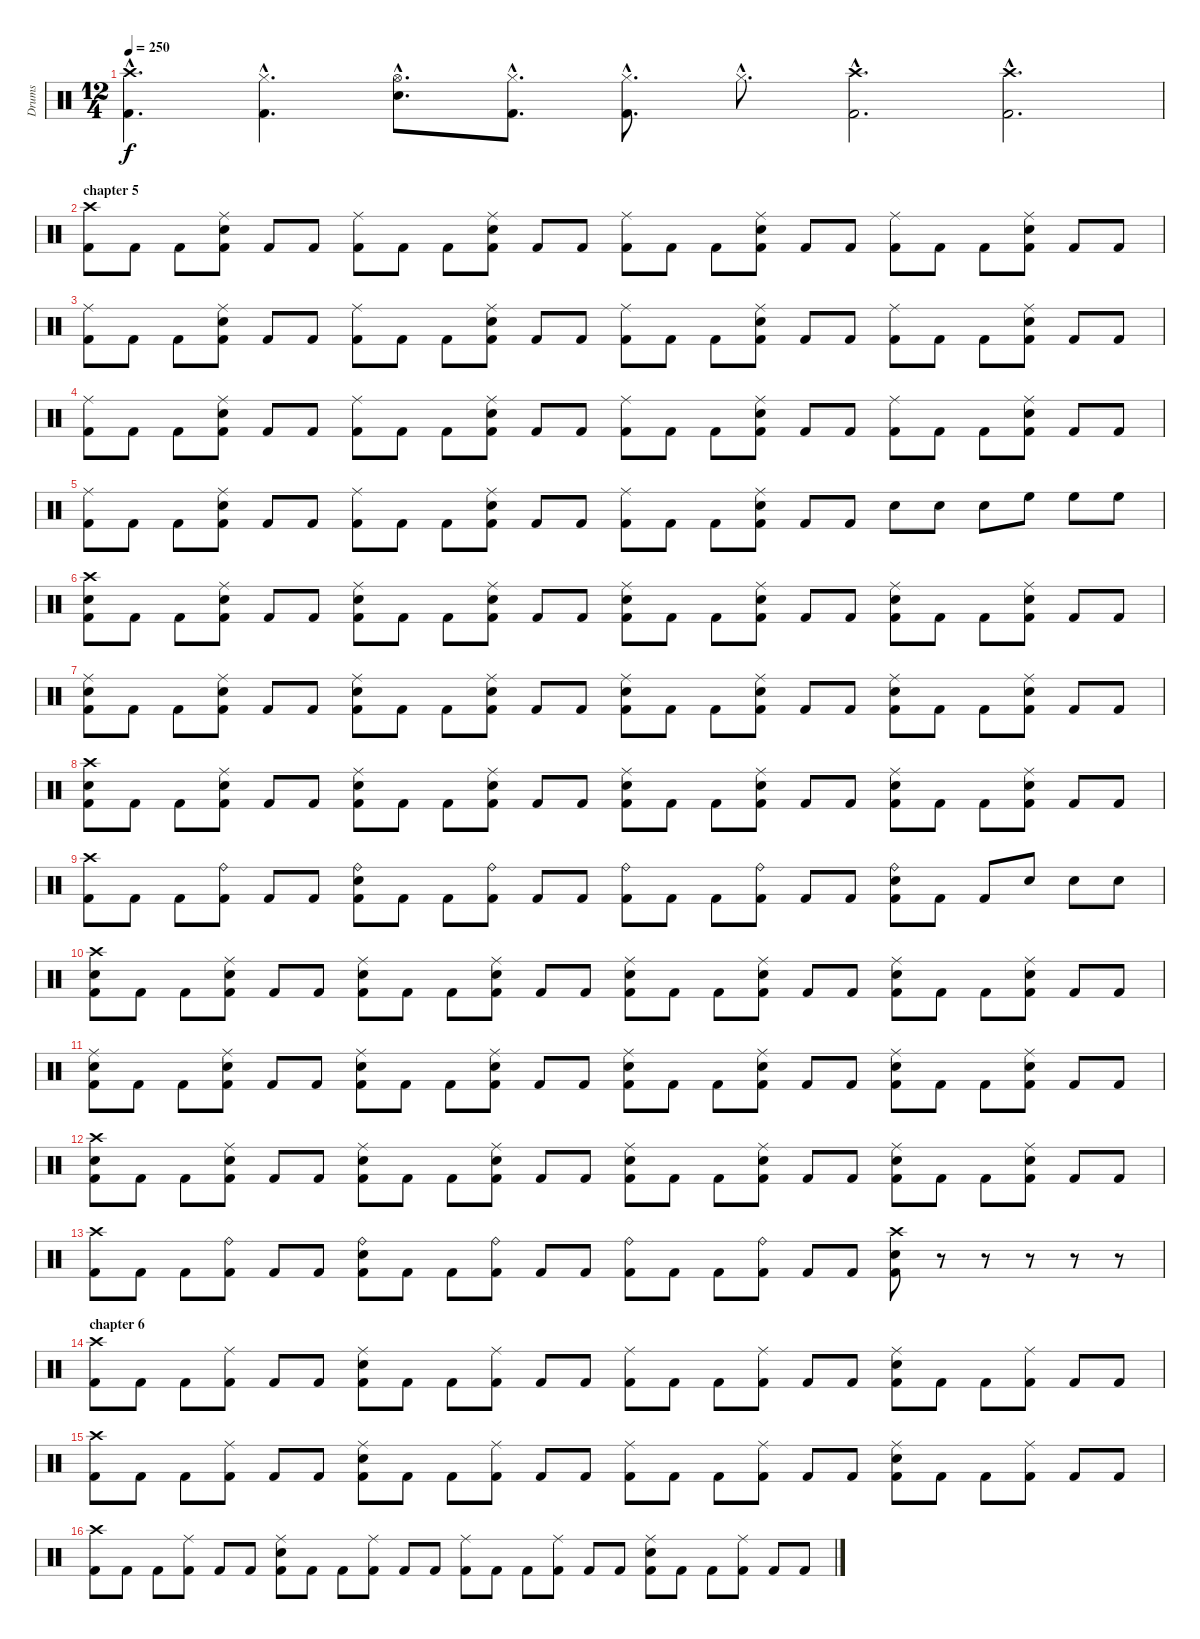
\track ("Drums" "Drums") {instrument percussion}
\staff {score}
\articulation defaults
\ts (12 4)
\tempo 250
\clef neutral
\ks c
("Crash high (hit)"{hac} "Kick (hit) 2"{hac}).4{d dy f} ("Hi-Hat (closed)"{hac} "Kick (hit) 2"{hac}).4{d} ("Hi-Hat (open)"{hac} "Snare (hit) 2"{hac}).8{d} ("Hi-Hat (closed)"{hac} "Kick (hit) 2"{hac}).8{d} ("Hi-Hat (closed)"{hac} "Kick (hit) 2"{hac}).8{d} "Hi-Hat (closed)"{hac}.8{d} ("Crash high (hit)"{hac} "Kick (hit) 2"{hac}).2{d} ("Crash high (hit)"{hac} "Kick (hit) 2"{hac}).2{d} |
\section ("" "chapter 5")
("Crash high (hit)" "Kick (hit) 2").8 "Kick (hit) 2".8 "Kick (hit) 2".8 ("Ride (middle)" "Snare (hit) 2" "Kick (hit) 2").8 "Kick (hit) 2".8 "Kick (hit) 2".8 ("Ride (middle)" "Kick (hit) 2").8 "Kick (hit) 2".8 "Kick (hit) 2".8 ("Ride (middle)" "Snare (hit) 2" "Kick (hit) 2").8 "Kick (hit) 2".8 "Kick (hit) 2".8 ("Ride (middle)" "Kick (hit) 2").8 "Kick (hit) 2".8 "Kick (hit) 2".8 ("Ride (middle)" "Snare (hit) 2" "Kick (hit) 2").8 "Kick (hit) 2".8 "Kick (hit) 2".8 ("Ride (middle)" "Kick (hit) 2").8 "Kick (hit) 2".8 "Kick (hit) 2".8 ("Ride (middle)" "Snare (hit) 2" "Kick (hit) 2").8 "Kick (hit) 2".8 "Kick (hit) 2".8 |
("Ride (middle)" "Kick (hit) 2").8 "Kick (hit) 2".8 "Kick (hit) 2".8 ("Ride (middle)" "Snare (hit) 2" "Kick (hit) 2").8 "Kick (hit) 2".8 "Kick (hit) 2".8 ("Ride (middle)" "Kick (hit) 2").8 "Kick (hit) 2".8 "Kick (hit) 2".8 ("Ride (middle)" "Snare (hit) 2" "Kick (hit) 2").8 "Kick (hit) 2".8 "Kick (hit) 2".8 ("Ride (middle)" "Kick (hit) 2").8 "Kick (hit) 2".8 "Kick (hit) 2".8 ("Ride (middle)" "Snare (hit) 2" "Kick (hit) 2").8 "Kick (hit) 2".8 "Kick (hit) 2".8 ("Ride (middle)" "Kick (hit) 2").8 "Kick (hit) 2".8 "Kick (hit) 2".8 ("Ride (middle)" "Snare (hit) 2" "Kick (hit) 2").8 "Kick (hit) 2".8 "Kick (hit) 2".8 |
("Ride (middle)" "Kick (hit) 2").8 "Kick (hit) 2".8 "Kick (hit) 2".8 ("Ride (middle)" "Snare (hit) 2" "Kick (hit) 2").8 "Kick (hit) 2".8 "Kick (hit) 2".8 ("Ride (middle)" "Kick (hit) 2").8 "Kick (hit) 2".8 "Kick (hit) 2".8 ("Ride (middle)" "Snare (hit) 2" "Kick (hit) 2").8 "Kick (hit) 2".8 "Kick (hit) 2".8 ("Ride (middle)" "Kick (hit) 2").8 "Kick (hit) 2".8 "Kick (hit) 2".8 ("Ride (middle)" "Snare (hit) 2" "Kick (hit) 2").8 "Kick (hit) 2".8 "Kick (hit) 2".8 ("Ride (middle)" "Kick (hit) 2").8 "Kick (hit) 2".8 "Kick (hit) 2".8 ("Ride (middle)" "Snare (hit) 2" "Kick (hit) 2").8 "Kick (hit) 2".8 "Kick (hit) 2".8 |
("Ride (middle)" "Kick (hit) 2").8 "Kick (hit) 2".8 "Kick (hit) 2".8 ("Ride (middle)" "Snare (hit) 2" "Kick (hit) 2").8 "Kick (hit) 2".8 "Kick (hit) 2".8 ("Ride (middle)" "Kick (hit) 2").8 "Kick (hit) 2".8 "Kick (hit) 2".8 ("Ride (middle)" "Snare (hit) 2" "Kick (hit) 2").8 "Kick (hit) 2".8 "Kick (hit) 2".8 ("Ride (middle)" "Kick (hit) 2").8 "Kick (hit) 2".8 "Kick (hit) 2".8 ("Ride (middle)" "Snare (hit) 2" "Kick (hit) 2").8 "Kick (hit) 2".8 "Kick (hit) 2".8 "Snare (hit) 2".8 "Snare (hit) 2".8 "Snare (hit) 2".8 "High Floor Tom (hit)".8 "High Floor Tom (hit)".8 "High Floor Tom (hit)".8 |
("Crash high (hit)" "Snare (hit) 2" "Kick (hit) 2").8 "Kick (hit) 2".8 "Kick (hit) 2".8 ("Ride (middle)" "Snare (hit) 2" "Kick (hit) 2").8 "Kick (hit) 2".8 "Kick (hit) 2".8 ("Ride (middle)" "Snare (hit) 2" "Kick (hit) 2").8 "Kick (hit) 2".8 "Kick (hit) 2".8 ("Ride (middle)" "Snare (hit) 2" "Kick (hit) 2").8 "Kick (hit) 2".8 "Kick (hit) 2".8 ("Ride (middle)" "Snare (hit) 2" "Kick (hit) 2").8 "Kick (hit) 2".8 "Kick (hit) 2".8 ("Ride (middle)" "Snare (hit) 2" "Kick (hit) 2").8 "Kick (hit) 2".8 "Kick (hit) 2".8 ("Ride (middle)" "Snare (hit) 2" "Kick (hit) 2").8 "Kick (hit) 2".8 "Kick (hit) 2".8 ("Ride (middle)" "Snare (hit) 2" "Kick (hit) 2").8 "Kick (hit) 2".8 "Kick (hit) 2".8 |
("Ride (middle)" "Snare (hit) 2" "Kick (hit) 2").8 "Kick (hit) 2".8 "Kick (hit) 2".8 ("Ride (middle)" "Snare (hit) 2" "Kick (hit) 2").8 "Kick (hit) 2".8 "Kick (hit) 2".8 ("Ride (middle)" "Snare (hit) 2" "Kick (hit) 2").8 "Kick (hit) 2".8 "Kick (hit) 2".8 ("Ride (middle)" "Snare (hit) 2" "Kick (hit) 2").8 "Kick (hit) 2".8 "Kick (hit) 2".8 ("Ride (middle)" "Snare (hit) 2" "Kick (hit) 2").8 "Kick (hit) 2".8 "Kick (hit) 2".8 ("Ride (middle)" "Snare (hit) 2" "Kick (hit) 2").8 "Kick (hit) 2".8 "Kick (hit) 2".8 ("Ride (middle)" "Snare (hit) 2" "Kick (hit) 2").8 "Kick (hit) 2".8 "Kick (hit) 2".8 ("Ride (middle)" "Snare (hit) 2" "Kick (hit) 2").8 "Kick (hit) 2".8 "Kick (hit) 2".8 |
("Crash high (hit)" "Snare (hit) 2" "Kick (hit) 2").8 "Kick (hit) 2".8 "Kick (hit) 2".8 ("Ride (middle)" "Snare (hit) 2" "Kick (hit) 2").8 "Kick (hit) 2".8 "Kick (hit) 2".8 ("Ride (middle)" "Snare (hit) 2" "Kick (hit) 2").8 "Kick (hit) 2".8 "Kick (hit) 2".8 ("Ride (middle)" "Snare (hit) 2" "Kick (hit) 2").8 "Kick (hit) 2".8 "Kick (hit) 2".8 ("Ride (middle)" "Snare (hit) 2" "Kick (hit) 2").8 "Kick (hit) 2".8 "Kick (hit) 2".8 ("Ride (middle)" "Snare (hit) 2" "Kick (hit) 2").8 "Kick (hit) 2".8 "Kick (hit) 2".8 ("Ride (middle)" "Snare (hit) 2" "Kick (hit) 2").8 "Kick (hit) 2".8 "Kick (hit) 2".8 ("Ride (middle)" "Snare (hit) 2" "Kick (hit) 2").8 "Kick (hit) 2".8 "Kick (hit) 2".8 |
("Crash high (hit)" "Kick (hit) 2").8 "Kick (hit) 2".8 "Kick (hit) 2".8 ("Ride (bell)" "Kick (hit) 2").8 "Kick (hit) 2".8 "Kick (hit) 2".8 ("Ride (bell)" "Snare (hit) 2" "Kick (hit) 2").8 "Kick (hit) 2".8 "Kick (hit) 2".8 ("Ride (bell)" "Kick (hit) 2").8 "Kick (hit) 2".8 "Kick (hit) 2".8 ("Ride (bell)" "Kick (hit) 2").8 "Kick (hit) 2".8 "Kick (hit) 2".8 ("Ride (bell)" "Kick (hit) 2").8 "Kick (hit) 2".8 "Kick (hit) 2".8 ("Ride (bell)" "Snare (hit) 2" "Kick (hit) 2").8 "Kick (hit) 2".8 "Kick (hit) 2".8 "Snare (hit) 2".8 "Snare (hit) 2".8 "Snare (hit) 2".8 |
("Crash high (hit)" "Snare (hit) 2" "Kick (hit) 2").8 "Kick (hit) 2".8 "Kick (hit) 2".8 ("Ride (middle)" "Snare (hit) 2" "Kick (hit) 2").8 "Kick (hit) 2".8 "Kick (hit) 2".8 ("Ride (middle)" "Snare (hit) 2" "Kick (hit) 2").8 "Kick (hit) 2".8 "Kick (hit) 2".8 ("Ride (middle)" "Snare (hit) 2" "Kick (hit) 2").8 "Kick (hit) 2".8 "Kick (hit) 2".8 ("Ride (middle)" "Snare (hit) 2" "Kick (hit) 2").8 "Kick (hit) 2".8 "Kick (hit) 2".8 ("Ride (middle)" "Snare (hit) 2" "Kick (hit) 2").8 "Kick (hit) 2".8 "Kick (hit) 2".8 ("Ride (middle)" "Snare (hit) 2" "Kick (hit) 2").8 "Kick (hit) 2".8 "Kick (hit) 2".8 ("Ride (middle)" "Snare (hit) 2" "Kick (hit) 2").8 "Kick (hit) 2".8 "Kick (hit) 2".8 |
("Ride (middle)" "Snare (hit) 2" "Kick (hit) 2").8 "Kick (hit) 2".8 "Kick (hit) 2".8 ("Ride (middle)" "Snare (hit) 2" "Kick (hit) 2").8 "Kick (hit) 2".8 "Kick (hit) 2".8 ("Ride (middle)" "Snare (hit) 2" "Kick (hit) 2").8 "Kick (hit) 2".8 "Kick (hit) 2".8 ("Ride (middle)" "Snare (hit) 2" "Kick (hit) 2").8 "Kick (hit) 2".8 "Kick (hit) 2".8 ("Ride (middle)" "Snare (hit) 2" "Kick (hit) 2").8 "Kick (hit) 2".8 "Kick (hit) 2".8 ("Ride (middle)" "Snare (hit) 2" "Kick (hit) 2").8 "Kick (hit) 2".8 "Kick (hit) 2".8 ("Ride (middle)" "Snare (hit) 2" "Kick (hit) 2").8 "Kick (hit) 2".8 "Kick (hit) 2".8 ("Ride (middle)" "Snare (hit) 2" "Kick (hit) 2").8 "Kick (hit) 2".8 "Kick (hit) 2".8 |
("Crash high (hit)" "Snare (hit) 2" "Kick (hit) 2").8 "Kick (hit) 2".8 "Kick (hit) 2".8 ("Ride (middle)" "Snare (hit) 2" "Kick (hit) 2").8 "Kick (hit) 2".8 "Kick (hit) 2".8 ("Ride (middle)" "Snare (hit) 2" "Kick (hit) 2").8 "Kick (hit) 2".8 "Kick (hit) 2".8 ("Ride (middle)" "Snare (hit) 2" "Kick (hit) 2").8 "Kick (hit) 2".8 "Kick (hit) 2".8 ("Ride (middle)" "Snare (hit) 2" "Kick (hit) 2").8 "Kick (hit) 2".8 "Kick (hit) 2".8 ("Ride (middle)" "Snare (hit) 2" "Kick (hit) 2").8 "Kick (hit) 2".8 "Kick (hit) 2".8 ("Ride (middle)" "Snare (hit) 2" "Kick (hit) 2").8 "Kick (hit) 2".8 "Kick (hit) 2".8 ("Ride (middle)" "Snare (hit) 2" "Kick (hit) 2").8 "Kick (hit) 2".8 "Kick (hit) 2".8 |
("Crash high (hit)" "Kick (hit) 2").8 "Kick (hit) 2".8 "Kick (hit) 2".8 ("Ride (bell)" "Kick (hit) 2").8 "Kick (hit) 2".8 "Kick (hit) 2".8 ("Ride (bell)" "Snare (hit) 2" "Kick (hit) 2").8 "Kick (hit) 2".8 "Kick (hit) 2".8 ("Ride (bell)" "Kick (hit) 2").8 "Kick (hit) 2".8 "Kick (hit) 2".8 ("Ride (bell)" "Kick (hit) 2").8 "Kick (hit) 2".8 "Kick (hit) 2".8 ("Ride (bell)" "Kick (hit) 2").8 "Kick (hit) 2".8 "Kick (hit) 2".8 ("Crash high (hit)" "Snare (hit) 2" "Kick (hit) 2").8 r.8 r.8 r.8 r.8 r.8 |
\section ("" "chapter 6")
("Crash high (hit)" "Kick (hit) 2").8 "Kick (hit) 2".8 "Kick (hit) 2".8 ("Ride (middle)" "Kick (hit) 2").8 "Kick (hit) 2".8 "Kick (hit) 2".8 ("Ride (middle)" "Snare (hit) 2" "Kick (hit) 2").8 "Kick (hit) 2".8 "Kick (hit) 2".8 ("Ride (middle)" "Kick (hit) 2").8 "Kick (hit) 2".8 "Kick (hit) 2".8 ("Ride (middle)" "Kick (hit) 2").8 "Kick (hit) 2".8 "Kick (hit) 2".8 ("Ride (middle)" "Kick (hit) 2").8 "Kick (hit) 2".8 "Kick (hit) 2".8 ("Ride (middle)" "Snare (hit) 2" "Kick (hit) 2").8 "Kick (hit) 2".8 "Kick (hit) 2".8 ("Ride (middle)" "Kick (hit) 2").8 "Kick (hit) 2".8 "Kick (hit) 2".8 |
("Crash high (hit)" "Kick (hit) 2").8 "Kick (hit) 2".8 "Kick (hit) 2".8 ("Ride (middle)" "Kick (hit) 2").8 "Kick (hit) 2".8 "Kick (hit) 2".8 ("Ride (middle)" "Snare (hit) 2" "Kick (hit) 2").8 "Kick (hit) 2".8 "Kick (hit) 2".8 ("Ride (middle)" "Kick (hit) 2").8 "Kick (hit) 2".8 "Kick (hit) 2".8 ("Ride (middle)" "Kick (hit) 2").8 "Kick (hit) 2".8 "Kick (hit) 2".8 ("Ride (middle)" "Kick (hit) 2").8 "Kick (hit) 2".8 "Kick (hit) 2".8 ("Ride (middle)" "Snare (hit) 2" "Kick (hit) 2").8 "Kick (hit) 2".8 "Kick (hit) 2".8 ("Ride (middle)" "Kick (hit) 2").8 "Kick (hit) 2".8 "Kick (hit) 2".8 |
("Crash high (hit)" "Kick (hit) 2").8 "Kick (hit) 2".8 "Kick (hit) 2".8 ("Ride (middle)" "Kick (hit) 2").8 "Kick (hit) 2".8 "Kick (hit) 2".8 ("Ride (middle)" "Snare (hit) 2" "Kick (hit) 2").8 "Kick (hit) 2".8 "Kick (hit) 2".8 ("Ride (middle)" "Kick (hit) 2").8 "Kick (hit) 2".8 "Kick (hit) 2".8 ("Ride (middle)" "Kick (hit) 2").8 "Kick (hit) 2".8 "Kick (hit) 2".8 ("Ride (middle)" "Kick (hit) 2").8 "Kick (hit) 2".8 "Kick (hit) 2".8 ("Ride (middle)" "Snare (hit) 2" "Kick (hit) 2").8 "Kick (hit) 2".8 "Kick (hit) 2".8 ("Ride (middle)" "Kick (hit) 2").8 "Kick (hit) 2".8 "Kick (hit) 2".8
